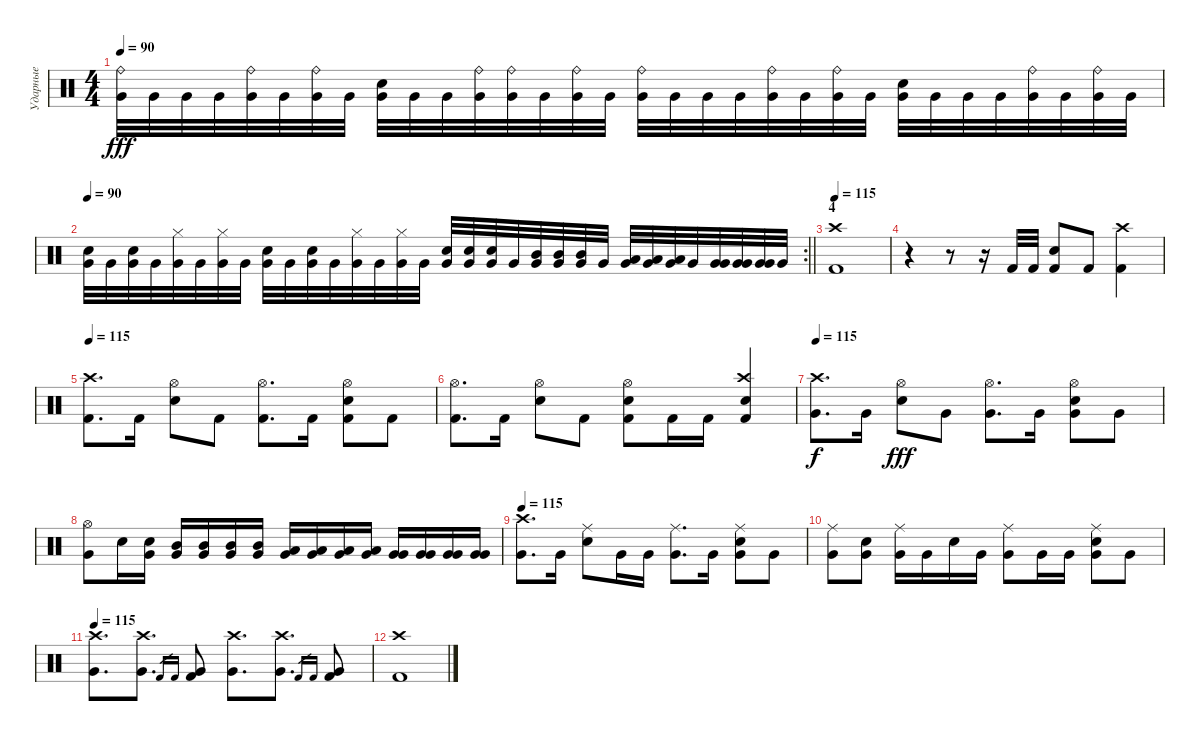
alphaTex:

\track ("Ударные" "Ударные") {instrument percussion}
\staff {score}
\articulation defaults
\ts (4 4)
\tempo 90
\clef neutral
\ks c
("Ride (bell)" "Very Low Tom (hit)").32{dy fff} "Very Low Tom (hit)".32 "Very Low Tom (hit)".32 "Very Low Tom (hit)".32 ("Ride (bell)" "Very Low Tom (hit)").32 "Very Low Tom (hit)".32 ("Ride (bell)" "Very Low Tom (hit)").32 "Very Low Tom (hit)".32 ("Snare (hit) 2" "Very Low Tom (hit)").32 "Very Low Tom (hit)".32 "Very Low Tom (hit)".32 ("Ride (bell)" "Very Low Tom (hit)").32 ("Ride (bell)" "Very Low Tom (hit)").32 "Very Low Tom (hit)".32 ("Ride (bell)" "Very Low Tom (hit)").32 "Very Low Tom (hit)".32 ("Ride (bell)" "Very Low Tom (hit)").32 "Very Low Tom (hit)".32 "Very Low Tom (hit)".32 "Very Low Tom (hit)".32 ("Ride (bell)" "Very Low Tom (hit)").32 "Very Low Tom (hit)".32 ("Ride (bell)" "Very Low Tom (hit)").32 "Very Low Tom (hit)".32 ("Snare (hit) 2" "Very Low Tom (hit)").32 "Very Low Tom (hit)".32 "Very Low Tom (hit)".32 "Very Low Tom (hit)".32 ("Ride (bell)" "Very Low Tom (hit)").32 "Very Low Tom (hit)".32 ("Ride (bell)" "Very Low Tom (hit)").32 "Very Low Tom (hit)".32 |
\rc 2
\tempo 90
\barLineRight lightlight
("Snare (hit) 2" "Very Low Tom (hit)").32 "Very Low Tom (hit)".32 ("Snare (hit) 2" "Very Low Tom (hit)").32 "Very Low Tom (hit)".32 ("Hi-Hat (closed)" "Very Low Tom (hit)").32 "Very Low Tom (hit)".32 ("Hi-Hat (closed)" "Very Low Tom (hit)").32 "Very Low Tom (hit)".32 ("Snare (hit) 2" "Very Low Tom (hit)").32 "Very Low Tom (hit)".32 ("Snare (hit) 2" "Very Low Tom (hit)").32 "Very Low Tom (hit)".32 ("Hi-Hat (closed)" "Very Low Tom (hit)").32 "Very Low Tom (hit)".32 ("Hi-Hat (closed)" "Very Low Tom (hit)").32 "Very Low Tom (hit)".32 ("Snare (hit) 2" "Very Low Tom (hit)").32 ("Snare (hit) 2" "Very Low Tom (hit)").32 ("Snare (hit) 2" "Very Low Tom (hit)").32 "Very Low Tom (hit)".32 ("Mid Tom (hit)" "Very Low Tom (hit)").32 ("Mid Tom (hit)" "Very Low Tom (hit)").32 ("Mid Tom (hit)" "Very Low Tom (hit)").32 "Very Low Tom (hit)".32 ("Low Tom (hit)" "Very Low Tom (hit)").32 ("Low Tom (hit)" "Very Low Tom (hit)").32 ("Low Tom (hit)" "Very Low Tom (hit)").32 "Very Low Tom (hit)".32 ("Very Low Tom (hit)" "Very Low Tom (hit)").32 ("Very Low Tom (hit)" "Very Low Tom (hit)").32 ("Very Low Tom (hit)" "Very Low Tom (hit)").32 "Very Low Tom (hit)".32 |
\section ("" "4")
\tempo 115
("Crash high (hit)" "Kick (hit) 2").1 |
r.4 r.8 r.16 "Kick (hit) 2".32 "Kick (hit) 2".32 ("Snare (hit) 2" "Kick (hit) 2").8 "Kick (hit) 2".8 ("Crash high (hit)" "Kick (hit) 2").4 |
\tempo 115
("Crash high (hit)" "Kick (hit) 2").8{d} "Kick (hit) 2".16 ("Hi-Hat (open)" "Snare (hit) 2").8 "Kick (hit) 2".8 ("Hi-Hat (open)" "Kick (hit) 2").8{d} "Kick (hit) 2".16 ("Hi-Hat (open)" "Snare (hit) 2" "Kick (hit) 2").8 "Kick (hit) 2".8 |
("Hi-Hat (open)" "Kick (hit) 2").8{d} "Kick (hit) 2".16 ("Hi-Hat (open)" "Snare (hit) 2").8 "Kick (hit) 2".8 ("Hi-Hat (open)" "Snare (hit) 2" "Kick (hit) 2").8 "Kick (hit) 2".16 "Kick (hit) 2".16 ("Crash high (hit)" "Snare (hit) 2" "Kick (hit) 2").4 |
\tempo 115
("Crash high (hit)" "Very Low Tom (hit)").8{d dy f} "Very Low Tom (hit)".16 ("Hi-Hat (open)" "Snare (hit) 2").8{dy fff} "Very Low Tom (hit)".8 ("Hi-Hat (open)" "Very Low Tom (hit)").8{d} "Very Low Tom (hit)".16 ("Hi-Hat (open)" "Snare (hit) 2" "Very Low Tom (hit)").8 "Very Low Tom (hit)".8 |
("Hi-Hat (open)" "Very Low Tom (hit)").8 "Snare (hit) 2".16 ("Snare (hit) 2" "Very Low Tom (hit)").16 ("Mid Tom (hit)" "Very Low Tom (hit)").16 ("Mid Tom (hit)" "Very Low Tom (hit)").16 ("Mid Tom (hit)" "Very Low Tom (hit)").16 ("Mid Tom (hit)" "Very Low Tom (hit)").16 ("Low Tom (hit)" "Very Low Tom (hit)").16 ("Low Tom (hit)" "Very Low Tom (hit)").16 ("Low Tom (hit)" "Very Low Tom (hit)").16 ("Low Tom (hit)" "Very Low Tom (hit)").16 ("Very Low Tom (hit)" "Very Low Tom (hit)").16 ("Very Low Tom (hit)" "Very Low Tom (hit)").16 ("Very Low Tom (hit)" "Very Low Tom (hit)").16 ("Very Low Tom (hit)" "Very Low Tom (hit)").16 |
\tempo 115
("Crash high (hit)" "Very Low Tom (hit)").8{d} "Very Low Tom (hit)".16 ("Ride (middle)" "Snare (hit) 2").8 "Very Low Tom (hit)".16 "Very Low Tom (hit)".16 ("Ride (middle)" "Very Low Tom (hit)").8{d} "Very Low Tom (hit)".16 ("Ride (middle)" "Snare (hit) 2" "Very Low Tom (hit)").8 "Very Low Tom (hit)".8 |
("Ride (middle)" "Very Low Tom (hit)").8 ("Snare (hit) 2" "Very Low Tom (hit)").8 ("Ride (middle)" "Very Low Tom (hit)").16 "Very Low Tom (hit)".16 "Snare (hit) 2".16 "Very Low Tom (hit)".16 ("Ride (middle)" "Very Low Tom (hit)").8 "Very Low Tom (hit)".16 "Very Low Tom (hit)".16 ("Ride (middle)" "Snare (hit) 2" "Very Low Tom (hit)").8 "Very Low Tom (hit)".8 |
\tempo 115
("Crash high (hit)" "Very Low Tom (hit)").8{d} ("Crash high (hit)" "Very Low Tom (hit)").8{d} "Kick (hit) 2".16{gr} "Kick (hit) 2".16{gr} ("Kick (hit) 2" "Very Low Tom (hit)").8 ("Crash high (hit)" "Very Low Tom (hit)").8{d} ("Crash high (hit)" "Very Low Tom (hit)").8{d} "Kick (hit) 2".16{gr} "Kick (hit) 2".16{gr} ("Kick (hit) 2" "Very Low Tom (hit)").8 |
("Crash high (hit)" "Kick (hit) 2").1
